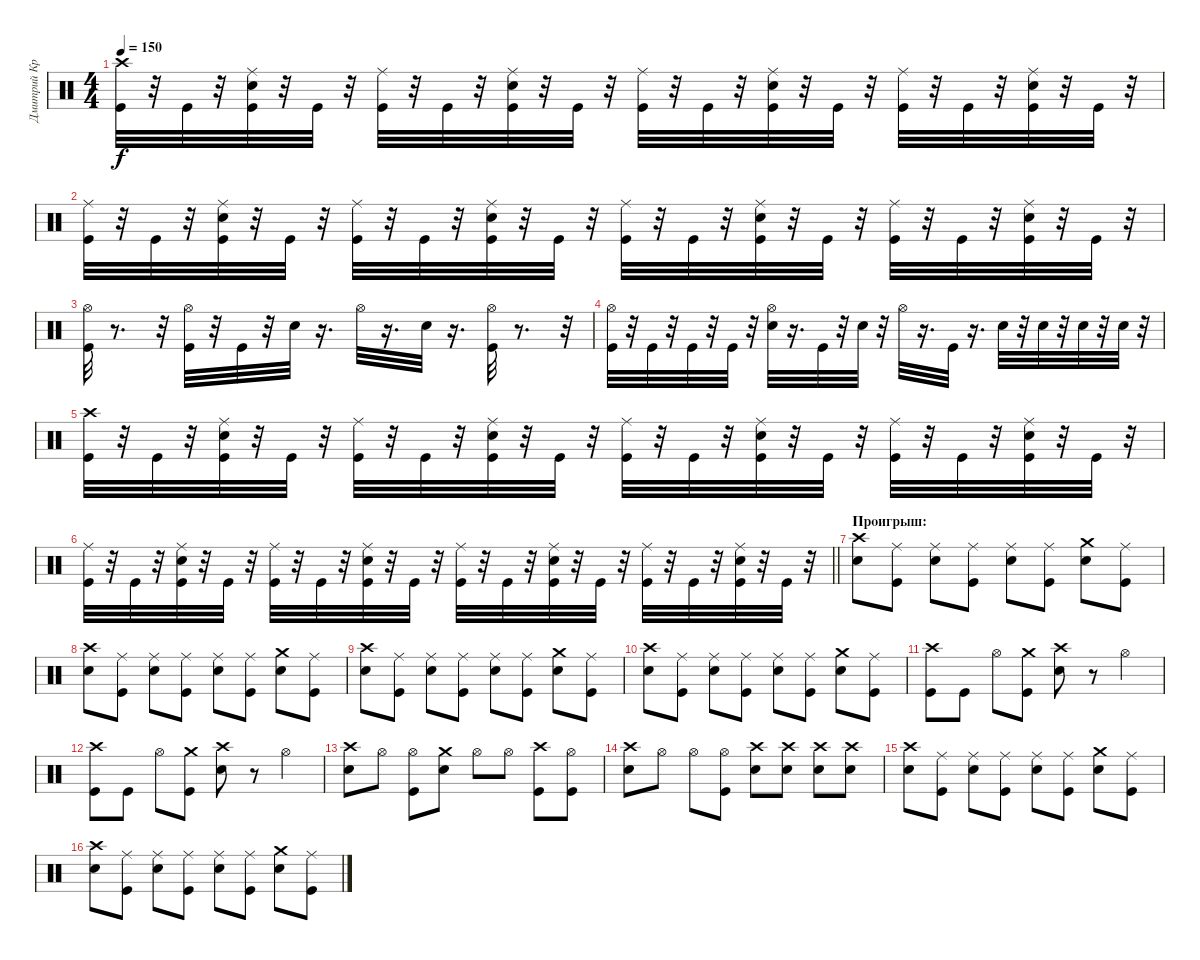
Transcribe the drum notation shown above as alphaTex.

\track ("Дмитрий Кривенков" "Дмитрий Кр") {instrument percussion}
\staff {score}
\articulation defaults
\ts (4 4)
\tempo 150
\clef neutral
\ks c
("Crash high (hit)" "Kick (hit)").32{dy f} r.32 "Kick (hit)".32 r.32 ("Ride (middle)" "Kick (hit)" "Electric Snare (hit)").32 r.32 "Kick (hit)".32 r.32 ("Ride (middle)" "Kick (hit)").32 r.32 "Kick (hit)".32 r.32 ("Ride (middle)" "Electric Snare (hit)" "Kick (hit)").32 r.32 "Kick (hit)".32 r.32 ("Ride (middle)" "Kick (hit)").32 r.32 "Kick (hit)".32 r.32 ("Ride (middle)" "Kick (hit)" "Electric Snare (hit)").32 r.32 "Kick (hit)".32 r.32 ("Ride (middle)" "Kick (hit)").32 r.32 "Kick (hit)".32 r.32 ("Ride (middle)" "Electric Snare (hit)" "Kick (hit)").32 r.32 "Kick (hit)".32 r.32 |
("Ride (middle)" "Kick (hit)").32 r.32 "Kick (hit)".32 r.32 ("Ride (middle)" "Electric Snare (hit)" "Kick (hit)").32 r.32 "Kick (hit)".32 r.32 ("Ride (middle)" "Kick (hit)").32 r.32 "Kick (hit)".32 r.32 ("Ride (middle)" "Electric Snare (hit)" "Kick (hit)").32 r.32 "Kick (hit)".32 r.32 ("Ride (middle)" "Kick (hit)").32 r.32 "Kick (hit)".32 r.32 ("Ride (middle)" "Electric Snare (hit)" "Kick (hit)").32 r.32 "Kick (hit)".32 r.32 ("Ride (middle)" "Kick (hit)").32 r.32 "Kick (hit)".32 r.32 ("Ride (middle)" "Electric Snare (hit)" "Kick (hit)").32 r.32 "Kick (hit)".32 r.32 |
("Hi-Hat (open)" "Kick (hit)").32 r.8{d} r.32 ("Hi-Hat (open)" "Kick (hit)").32 r.32 "Kick (hit)".32 r.32 "Electric Snare (hit)".32 r.16{d} "Hi-Hat (open)".32 r.16{d} "Electric Snare (hit)".32 r.16{d} ("Hi-Hat (open)" "Kick (hit)").32 r.8{d} r.32 |
("Hi-Hat (open)" "Kick (hit)").32 r.32 "Kick (hit)".32 r.32 "Kick (hit)".32 r.32 "Kick (hit)".32 r.32 ("Hi-Hat (open)" "Electric Snare (hit)").32 r.16{d} "Kick (hit)".32 r.32 "Electric Snare (hit)".32 r.32 "Hi-Hat (open)".32 r.16{d} "Kick (hit)".32 r.16{d} "Electric Snare (hit)".32 r.32 "Electric Snare (hit)".32 r.32 "Electric Snare (hit)".32 r.32 "Electric Snare (hit)".32 r.32 |
("Crash high (hit)" "Kick (hit)").32 r.32 "Kick (hit)".32 r.32 ("Ride (middle)" "Kick (hit)" "Electric Snare (hit)").32 r.32 "Kick (hit)".32 r.32 ("Ride (middle)" "Kick (hit)").32 r.32 "Kick (hit)".32 r.32 ("Ride (middle)" "Electric Snare (hit)" "Kick (hit)").32 r.32 "Kick (hit)".32 r.32 ("Ride (middle)" "Kick (hit)").32 r.32 "Kick (hit)".32 r.32 ("Ride (middle)" "Kick (hit)" "Electric Snare (hit)").32 r.32 "Kick (hit)".32 r.32 ("Ride (middle)" "Kick (hit)").32 r.32 "Kick (hit)".32 r.32 ("Ride (middle)" "Electric Snare (hit)" "Kick (hit)").32 r.32 "Kick (hit)".32 r.32 |
\barLineRight lightlight
("Ride (middle)" "Kick (hit)").32 r.32 "Kick (hit)".32 r.32 ("Ride (middle)" "Electric Snare (hit)" "Kick (hit)").32 r.32 "Kick (hit)".32 r.32 ("Ride (middle)" "Kick (hit)").32 r.32 "Kick (hit)".32 r.32 ("Ride (middle)" "Electric Snare (hit)" "Kick (hit)").32 r.32 "Kick (hit)".32 r.32 ("Ride (middle)" "Kick (hit)").32 r.32 "Kick (hit)".32 r.32 ("Ride (middle)" "Electric Snare (hit)" "Kick (hit)").32 r.32 "Kick (hit)".32 r.32 ("Ride (middle)" "Kick (hit)").32 r.32 "Kick (hit)".32 r.32 ("Ride (middle)" "Electric Snare (hit)" "Kick (hit)").32 r.32 "Kick (hit)".32 r.32 |
\section ("" "Проигрыш:")
("Crash high (hit)" "Electric Snare (hit)").8 ("Ride (middle)" "Kick (hit)").8 ("Ride (middle)" "Electric Snare (hit)").8 ("Ride (middle)" "Kick (hit)").8 ("Electric Snare (hit)" "Ride (middle)").8 ("Ride (middle)" "Kick (hit)").8 ("Electric Snare (hit)" "Crash medium (hit)").8 ("Ride (middle)" "Kick (hit)").8 |
("Electric Snare (hit)" "Crash high (hit)").8 ("Ride (middle)" "Kick (hit)").8 ("Ride (middle)" "Electric Snare (hit)").8 ("Kick (hit)" "Ride (middle)").8 ("Ride (middle)" "Electric Snare (hit)").8 ("Kick (hit)" "Ride (middle)").8 ("Crash medium (hit)" "Electric Snare (hit)").8 ("Ride (middle)" "Kick (hit)").8 |
("Crash high (hit)" "Electric Snare (hit)").8 ("Ride (middle)" "Kick (hit)").8 ("Electric Snare (hit)" "Ride (middle)").8 ("Ride (middle)" "Kick (hit)").8 ("Electric Snare (hit)" "Ride (middle)").8 ("Ride (middle)" "Kick (hit)").8 ("Crash medium (hit)" "Electric Snare (hit)").8 ("Kick (hit)" "Ride (middle)").8 |
("Crash high (hit)" "Electric Snare (hit)").8 ("Kick (hit)" "Ride (middle)").8 ("Electric Snare (hit)" "Ride (middle)").8 ("Kick (hit)" "Ride (middle)").8 ("Ride (middle)" "Electric Snare (hit)").8 ("Ride (middle)" "Kick (hit)").8 ("Crash medium (hit)" "Electric Snare (hit)").8 ("Ride (middle)" "Kick (hit)").8 |
("Crash high (hit)" "Kick (hit)").8 "Kick (hit)".8 "Hi-Hat (open)".8 ("Kick (hit)" "Crash medium (hit)").8 ("Crash high (hit)" "Electric Snare (hit)").8 r.8 "Hi-Hat (open)".4 |
("Crash high (hit)" "Kick (hit)").8 "Kick (hit)".8 "Hi-Hat (open)".8 ("Crash medium (hit)" "Kick (hit)").8 ("Crash high (hit)" "Electric Snare (hit)").8 r.8 "Hi-Hat (open)".4 |
("Electric Snare (hit)" "Crash high (hit)").8 "Hi-Hat (open)".8 ("Kick (hit)" "Hi-Hat (open)").8 ("Crash medium (hit)" "Electric Snare (hit)").8 "Hi-Hat (open)".8 "Hi-Hat (open)".8 ("Crash high (hit)" "Kick (hit)").8 ("Hi-Hat (open)" "Kick (hit)").8 |
("Electric Snare (hit)" "Crash high (hit)").8 "Hi-Hat (open)".8 "Hi-Hat (open)".8 ("Hi-Hat (open)" "Kick (hit)").8 ("Crash high (hit)" "Electric Snare (hit)").8 ("Crash high (hit)" "Electric Snare (hit)").8 ("Crash high (hit)" "Electric Snare (hit)").8 ("Electric Snare (hit)" "Crash high (hit)").8 |
("Crash high (hit)" "Electric Snare (hit)").8 ("Ride (middle)" "Kick (hit)").8 ("Electric Snare (hit)" "Ride (middle)").8 ("Ride (middle)" "Kick (hit)").8 ("Ride (middle)" "Electric Snare (hit)").8 ("Ride (middle)" "Kick (hit)").8 ("Crash medium (hit)" "Electric Snare (hit)").8 ("Ride (middle)" "Kick (hit)").8 |
("Crash high (hit)" "Electric Snare (hit)").8 ("Kick (hit)" "Ride (middle)").8 ("Ride (middle)" "Electric Snare (hit)").8 ("Kick (hit)" "Ride (middle)").8 ("Ride (middle)" "Electric Snare (hit)").8 ("Kick (hit)" "Ride (middle)").8 ("Crash medium (hit)" "Electric Snare (hit)").8 ("Ride (middle)" "Kick (hit)").8
